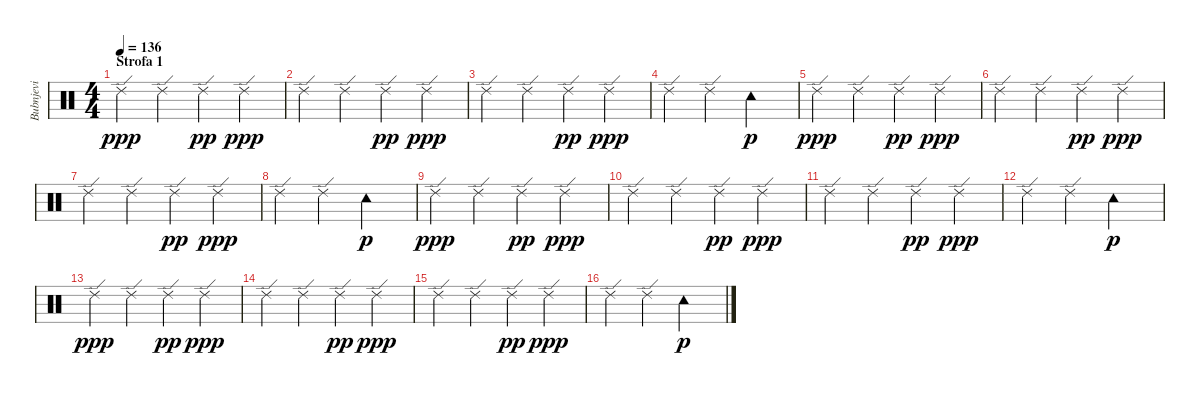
\track ("Bubnjevi" "Bubnjevi") {instrument percussion}
\staff {score}
\articulation defaults
\ts (4 4)
\section ("" "Strofa 1")
\tempo 136
\clef neutral
\ks c "Ride (edge) 2".4{dy ppp} "Ride (edge) 2".4 "Ride (edge) 2".4{dy pp} "Ride (edge) 2".4{dy ppp}
|
"Ride (edge) 2".4 "Ride (edge) 2".4 "Ride (edge) 2".4{dy pp} "Ride (edge) 2".4{dy ppp} |
"Ride (edge) 2".4 "Ride (edge) 2".4 "Ride (edge) 2".4{dy pp} "Ride (edge) 2".4{dy ppp} |
"Ride (edge) 2".4 "Ride (edge) 2".4 "Tambourine (hit)".2{dy p} |
"Ride (edge) 2".4{dy ppp} "Ride (edge) 2".4 "Ride (edge) 2".4{dy pp} "Ride (edge) 2".4{dy ppp} |
"Ride (edge) 2".4 "Ride (edge) 2".4 "Ride (edge) 2".4{dy pp} "Ride (edge) 2".4{dy ppp} |
"Ride (edge) 2".4 "Ride (edge) 2".4 "Ride (edge) 2".4{dy pp} "Ride (edge) 2".4{dy ppp} |
"Ride (edge) 2".4 "Ride (edge) 2".4 "Tambourine (hit)".2{dy p} |
"Ride (edge) 2".4{dy ppp} "Ride (edge) 2".4 "Ride (edge) 2".4{dy pp} "Ride (edge) 2".4{dy ppp} |
"Ride (edge) 2".4 "Ride (edge) 2".4 "Ride (edge) 2".4{dy pp} "Ride (edge) 2".4{dy ppp} |
"Ride (edge) 2".4 "Ride (edge) 2".4 "Ride (edge) 2".4{dy pp} "Ride (edge) 2".4{dy ppp} |
"Ride (edge) 2".4 "Ride (edge) 2".4 "Tambourine (hit)".2{dy p} |
"Ride (edge) 2".4{dy ppp} "Ride (edge) 2".4 "Ride (edge) 2".4{dy pp} "Ride (edge) 2".4{dy ppp} |
"Ride (edge) 2".4 "Ride (edge) 2".4 "Ride (edge) 2".4{dy pp} "Ride (edge) 2".4{dy ppp} |
"Ride (edge) 2".4 "Ride (edge) 2".4 "Ride (edge) 2".4{dy pp} "Ride (edge) 2".4{dy ppp} |
"Ride (edge) 2".4 "Ride (edge) 2".4 "Tambourine (hit)".2{dy p}
